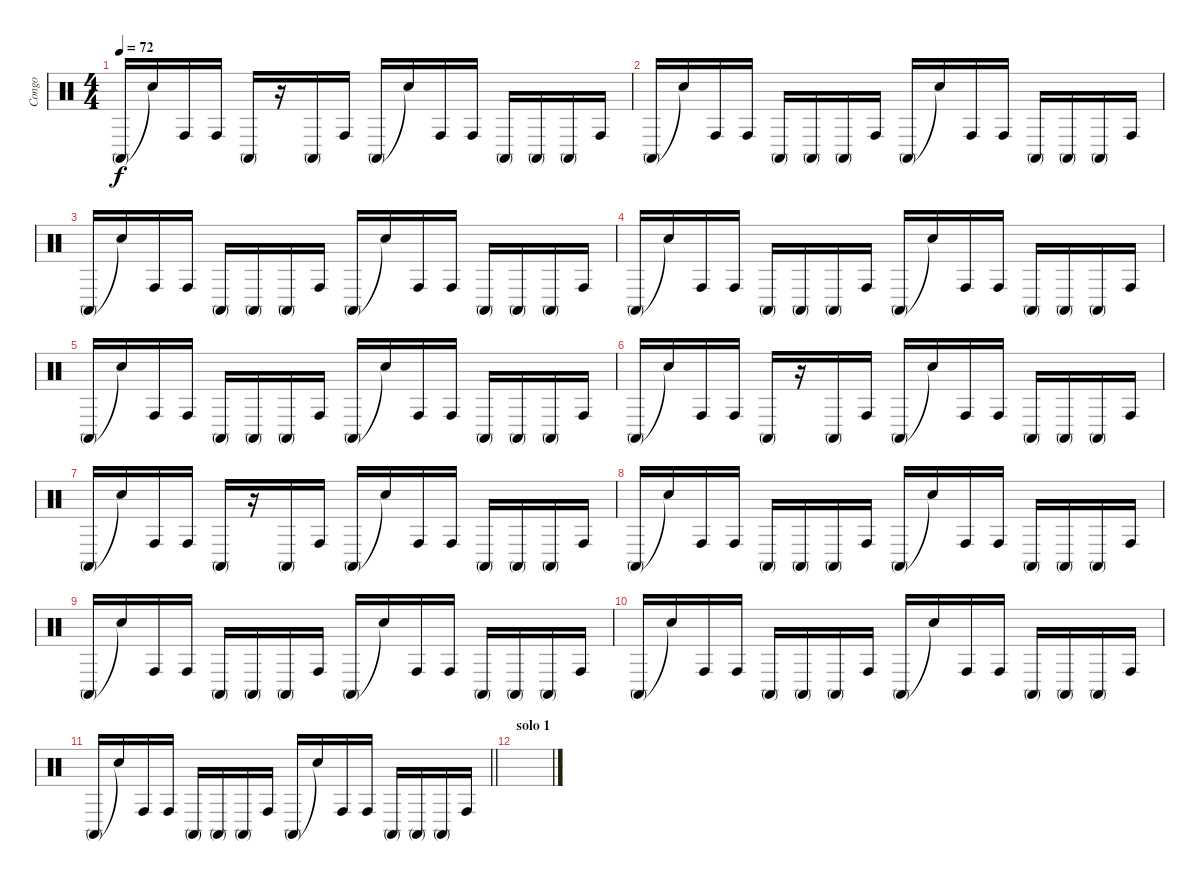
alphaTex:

\track ("Congo" "Congo") {instrument percussion}
\staff {score}
\articulation defaults
\ts (4 4)
\tempo 72
\clef neutral
\ks c "Conga high (mute)".16{dy f} "Snare (hit)"{t}.16 "Conga high (hit)".16 "Conga high (hit)".16 "Conga high (mute)".16
r.16 "Conga high (mute)".16 "Conga high (hit)".16 "Conga high (mute)".16 "Snare (hit)"{t}.16 "Conga high (hit)".16 "Conga high (hit)".16 "Conga high (mute)".16 "Conga high (mute)".16 "Conga high (mute)".16 "Conga high (hit)".16 |
"Conga high (mute)".16 "Snare (hit)"{t}.16 "Conga high (hit)".16 "Conga high (hit)".16 "Conga high (mute)".16 "Conga high (mute)".16 "Conga high (mute)".16 "Conga high (hit)".16 "Conga high (mute)".16 "Snare (hit)"{t}.16 "Conga high (hit)".16 "Conga high (hit)".16 "Conga high (mute)".16 "Conga high (mute)".16 "Conga high (mute)".16 "Conga high (hit)".16 |
"Conga high (mute)".16 "Snare (hit)"{t}.16 "Conga high (hit)".16 "Conga high (hit)".16 "Conga high (mute)".16 "Conga high (mute)".16 "Conga high (mute)".16 "Conga high (hit)".16 "Conga high (mute)".16 "Snare (hit)"{t}.16 "Conga high (hit)".16 "Conga high (hit)".16 "Conga high (mute)".16 "Conga high (mute)".16 "Conga high (mute)".16 "Conga high (hit)".16 |
"Conga high (mute)".16 "Snare (hit)"{t}.16 "Conga high (hit)".16 "Conga high (hit)".16 "Conga high (mute)".16 "Conga high (mute)".16 "Conga high (mute)".16 "Conga high (hit)".16 "Conga high (mute)".16 "Snare (hit)"{t}.16 "Conga high (hit)".16 "Conga high (hit)".16 "Conga high (mute)".16 "Conga high (mute)".16 "Conga high (mute)".16 "Conga high (hit)".16 |
"Conga high (mute)".16 "Snare (hit)"{t}.16 "Conga high (hit)".16 "Conga high (hit)".16 "Conga high (mute)".16 "Conga high (mute)".16 "Conga high (mute)".16 "Conga high (hit)".16 "Conga high (mute)".16 "Snare (hit)"{t}.16 "Conga high (hit)".16 "Conga high (hit)".16 "Conga high (mute)".16 "Conga high (mute)".16 "Conga high (mute)".16 "Conga high (hit)".16 |
"Conga high (mute)".16 "Snare (hit)"{t}.16 "Conga high (hit)".16 "Conga high (hit)".16 "Conga high (mute)".16 r.16 "Conga high (mute)".16 "Conga high (hit)".16 "Conga high (mute)".16 "Snare (hit)"{t}.16 "Conga high (hit)".16 "Conga high (hit)".16 "Conga high (mute)".16 "Conga high (mute)".16 "Conga high (mute)".16 "Conga high (hit)".16 |
"Conga high (mute)".16 "Snare (hit)"{t}.16 "Conga high (hit)".16 "Conga high (hit)".16 "Conga high (mute)".16 r.16 "Conga high (mute)".16 "Conga high (hit)".16 "Conga high (mute)".16 "Snare (hit)"{t}.16 "Conga high (hit)".16 "Conga high (hit)".16 "Conga high (mute)".16 "Conga high (mute)".16 "Conga high (mute)".16 "Conga high (hit)".16 |
"Conga high (mute)".16 "Snare (hit)"{t}.16 "Conga high (hit)".16 "Conga high (hit)".16 "Conga high (mute)".16 "Conga high (mute)".16 "Conga high (mute)".16 "Conga high (hit)".16 "Conga high (mute)".16 "Snare (hit)"{t}.16 "Conga high (hit)".16 "Conga high (hit)".16 "Conga high (mute)".16 "Conga high (mute)".16 "Conga high (mute)".16 "Conga high (hit)".16 |
"Conga high (mute)".16 "Snare (hit)"{t}.16 "Conga high (hit)".16 "Conga high (hit)".16 "Conga high (mute)".16 "Conga high (mute)".16 "Conga high (mute)".16 "Conga high (hit)".16 "Conga high (mute)".16 "Snare (hit)"{t}.16 "Conga high (hit)".16 "Conga high (hit)".16 "Conga high (mute)".16 "Conga high (mute)".16 "Conga high (mute)".16 "Conga high (hit)".16 |
"Conga high (mute)".16 "Snare (hit)"{t}.16 "Conga high (hit)".16 "Conga high (hit)".16 "Conga high (mute)".16 "Conga high (mute)".16 "Conga high (mute)".16 "Conga high (hit)".16 "Conga high (mute)".16 "Snare (hit)"{t}.16 "Conga high (hit)".16 "Conga high (hit)".16 "Conga high (mute)".16 "Conga high (mute)".16 "Conga high (mute)".16 "Conga high (hit)".16 |
\barLineRight lightlight "Conga high (mute)".16 "Snare (hit)"{t}.16 "Conga high (hit)".16 "Conga high (hit)".16 "Conga high (mute)".16 "Conga high (mute)".16 "Conga high (mute)".16 "Conga high (hit)".16 "Conga high (mute)".16 "Snare (hit)"{t}.16 "Conga high (hit)".16 "Conga high (hit)".16 "Conga high (mute)".16 "Conga high (mute)".16 "Conga high (mute)".16 "Conga high (hit)".16
|
\section ("" "solo 1")
